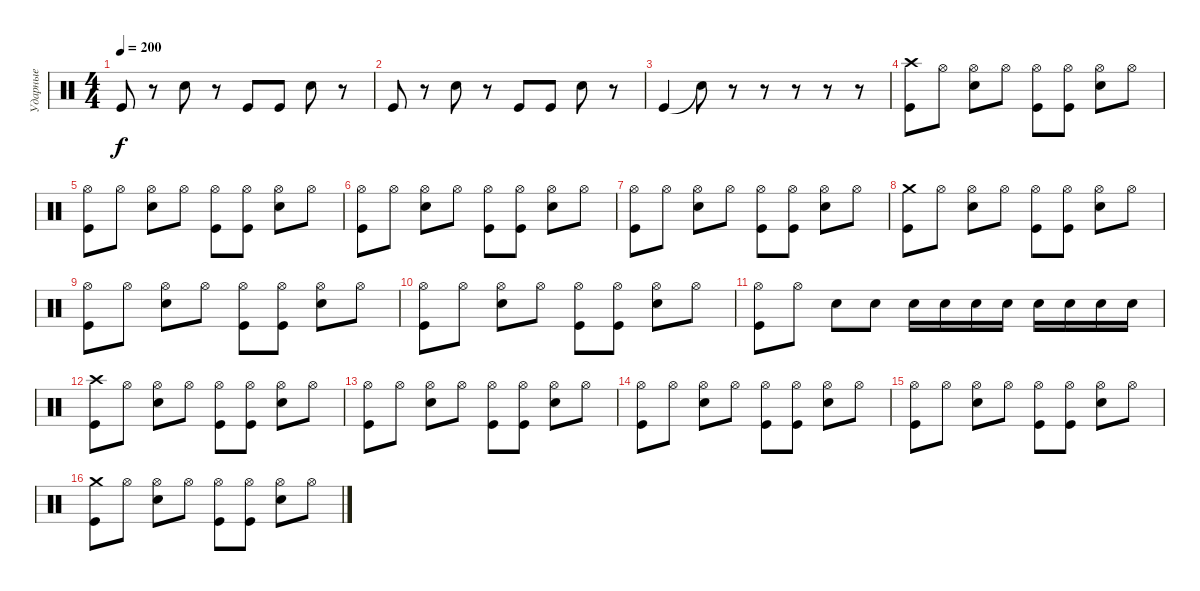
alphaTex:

\track ("Ударные" "Ударные") {instrument percussion}
\staff {score}
\articulation defaults
\ts (4 4)
\tempo 200
\clef neutral
\ks c "Kick (hit)".8{dy f}
r.8 "Snare (hit) 2".8 r.8 "Kick (hit)".8 "Kick (hit)".8 "Snare (hit) 2".8 r.8 |
"Kick (hit)".8 r.8 "Snare (hit) 2".8 r.8 "Kick (hit)".8 "Kick (hit)".8 "Snare (hit) 2".8 r.8 |
"Kick (hit)".4 "Snare (hit)"{t}.8 r.8 r.8 r.8 r.8 r.8 |
("Crash high (hit)" "Kick (hit)").8 "Hi-Hat (open)".8 ("Hi-Hat (open)" "Snare (hit) 2").8 "Hi-Hat (open)".8 ("Hi-Hat (open)" "Kick (hit)").8 ("Hi-Hat (open)" "Kick (hit)").8 ("Hi-Hat (open)" "Snare (hit) 2").8 "Hi-Hat (open)".8 |
("Hi-Hat (open)" "Kick (hit)").8 "Hi-Hat (open)".8 ("Hi-Hat (open)" "Snare (hit) 2").8 "Hi-Hat (open)".8 ("Hi-Hat (open)" "Kick (hit)").8 ("Hi-Hat (open)" "Kick (hit)").8 ("Hi-Hat (open)" "Snare (hit) 2").8 "Hi-Hat (open)".8 |
("Hi-Hat (open)" "Kick (hit)").8 "Hi-Hat (open)".8 ("Hi-Hat (open)" "Snare (hit) 2").8 "Hi-Hat (open)".8 ("Hi-Hat (open)" "Kick (hit)").8 ("Hi-Hat (open)" "Kick (hit)").8 ("Hi-Hat (open)" "Snare (hit) 2").8 "Hi-Hat (open)".8 |
("Hi-Hat (open)" "Kick (hit)").8 "Hi-Hat (open)".8 ("Hi-Hat (open)" "Snare (hit) 2").8 "Hi-Hat (open)".8 ("Hi-Hat (open)" "Kick (hit)").8 ("Hi-Hat (open)" "Kick (hit)").8 ("Hi-Hat (open)" "Snare (hit) 2").8 "Hi-Hat (open)".8 |
("Crash medium (hit)" "Kick (hit)").8 "Hi-Hat (open)".8 ("Hi-Hat (open)" "Snare (hit) 2").8 "Hi-Hat (open)".8 ("Hi-Hat (open)" "Kick (hit)").8 ("Hi-Hat (open)" "Kick (hit)").8 ("Hi-Hat (open)" "Snare (hit) 2").8 "Hi-Hat (open)".8 |
("Hi-Hat (open)" "Kick (hit)").8 "Hi-Hat (open)".8 ("Hi-Hat (open)" "Snare (hit) 2").8 "Hi-Hat (open)".8 ("Hi-Hat (open)" "Kick (hit)").8 ("Hi-Hat (open)" "Kick (hit)").8 ("Hi-Hat (open)" "Snare (hit) 2").8 "Hi-Hat (open)".8 |
("Hi-Hat (open)" "Kick (hit)").8 "Hi-Hat (open)".8 ("Hi-Hat (open)" "Snare (hit) 2").8 "Hi-Hat (open)".8 ("Hi-Hat (open)" "Kick (hit)").8 ("Hi-Hat (open)" "Kick (hit)").8 ("Hi-Hat (open)" "Snare (hit) 2").8 "Hi-Hat (open)".8 |
("Hi-Hat (open)" "Kick (hit)").8 "Hi-Hat (open)".8 "Snare (hit) 2".8 "Snare (hit) 2".8 "Snare (hit) 2".16 "Snare (hit) 2".16 "Snare (hit) 2".16 "Snare (hit) 2".16 "Snare (hit) 2".16 "Snare (hit) 2".16 "Snare (hit) 2".16 "Snare (hit) 2".16 |
("Crash high (hit)" "Kick (hit)").8 "Hi-Hat (open)".8 ("Hi-Hat (open)" "Snare (hit) 2").8 "Hi-Hat (open)".8 ("Hi-Hat (open)" "Kick (hit)").8 ("Hi-Hat (open)" "Kick (hit)").8 ("Hi-Hat (open)" "Snare (hit) 2").8 "Hi-Hat (open)".8 |
("Hi-Hat (open)" "Kick (hit)").8 "Hi-Hat (open)".8 ("Hi-Hat (open)" "Snare (hit) 2").8 "Hi-Hat (open)".8 ("Hi-Hat (open)" "Kick (hit)").8 ("Hi-Hat (open)" "Kick (hit)").8 ("Hi-Hat (open)" "Snare (hit) 2").8 "Hi-Hat (open)".8 |
("Hi-Hat (open)" "Kick (hit)").8 "Hi-Hat (open)".8 ("Hi-Hat (open)" "Snare (hit) 2").8 "Hi-Hat (open)".8 ("Hi-Hat (open)" "Kick (hit)").8 ("Hi-Hat (open)" "Kick (hit)").8 ("Hi-Hat (open)" "Snare (hit) 2").8 "Hi-Hat (open)".8 |
("Hi-Hat (open)" "Kick (hit)").8 "Hi-Hat (open)".8 ("Hi-Hat (open)" "Snare (hit) 2").8 "Hi-Hat (open)".8 ("Hi-Hat (open)" "Kick (hit)").8 ("Hi-Hat (open)" "Kick (hit)").8 ("Hi-Hat (open)" "Snare (hit) 2").8 "Hi-Hat (open)".8 |
("Crash medium (hit)" "Kick (hit)").8 "Hi-Hat (open)".8 ("Hi-Hat (open)" "Snare (hit) 2").8 "Hi-Hat (open)".8 ("Hi-Hat (open)" "Kick (hit)").8 ("Hi-Hat (open)" "Kick (hit)").8 ("Hi-Hat (open)" "Snare (hit) 2").8 "Hi-Hat (open)".8
